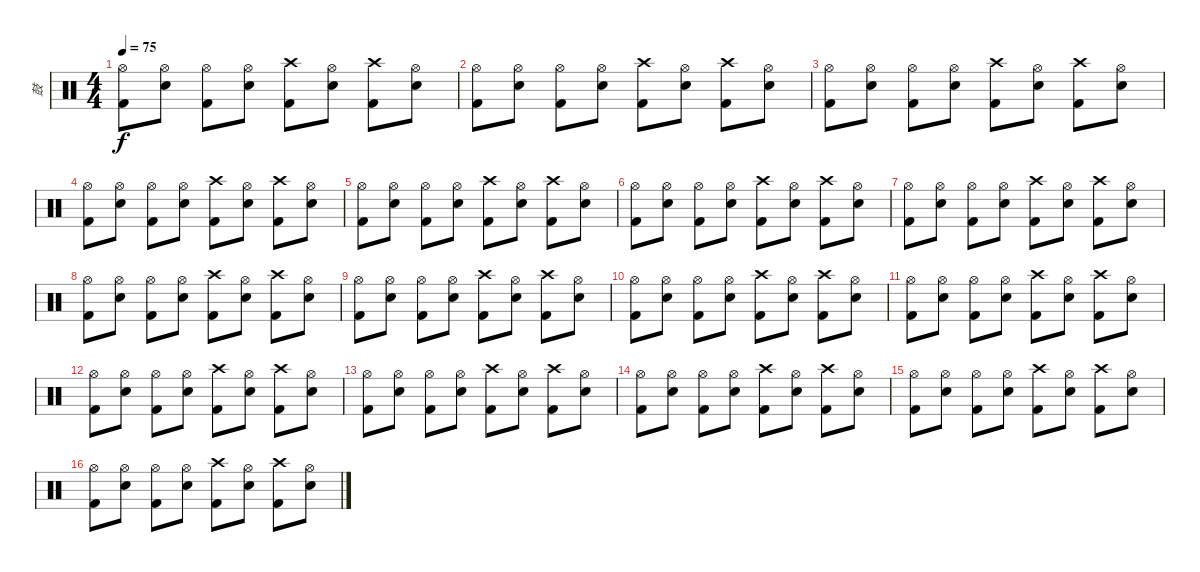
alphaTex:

\track ("鼓" "鼓") {instrument percussion}
\staff {score}
\articulation defaults
\ts (4 4)
\tempo 75
\clef neutral
\ks c
("Hi-Hat (open)" "Kick (hit) 2").8{dy f} ("Hi-Hat (open)" "Electric Snare (hit)").8 ("Hi-Hat (open)" "Kick (hit) 2").8 ("Hi-Hat (open)" "Electric Snare (hit)").8 ("Crash high (hit)" "Kick (hit) 2").8 ("Hi-Hat (open)" "Electric Snare (hit)").8 ("Crash high (hit)" "Kick (hit) 2").8 ("Hi-Hat (open)" "Electric Snare (hit)").8 |
("Hi-Hat (open)" "Kick (hit) 2").8 ("Hi-Hat (open)" "Electric Snare (hit)").8 ("Hi-Hat (open)" "Kick (hit) 2").8 ("Hi-Hat (open)" "Electric Snare (hit)").8 ("Crash high (hit)" "Kick (hit) 2").8 ("Hi-Hat (open)" "Electric Snare (hit)").8 ("Crash high (hit)" "Kick (hit) 2").8 ("Hi-Hat (open)" "Electric Snare (hit)").8 |
("Hi-Hat (open)" "Kick (hit) 2").8 ("Hi-Hat (open)" "Electric Snare (hit)").8 ("Hi-Hat (open)" "Kick (hit) 2").8 ("Hi-Hat (open)" "Electric Snare (hit)").8 ("Crash high (hit)" "Kick (hit) 2").8 ("Hi-Hat (open)" "Electric Snare (hit)").8 ("Crash high (hit)" "Kick (hit) 2").8 ("Hi-Hat (open)" "Electric Snare (hit)").8 |
("Hi-Hat (open)" "Kick (hit) 2").8 ("Hi-Hat (open)" "Electric Snare (hit)").8 ("Hi-Hat (open)" "Kick (hit) 2").8 ("Hi-Hat (open)" "Electric Snare (hit)").8 ("Crash high (hit)" "Kick (hit) 2").8 ("Hi-Hat (open)" "Electric Snare (hit)").8 ("Crash high (hit)" "Kick (hit) 2").8 ("Hi-Hat (open)" "Electric Snare (hit)").8 |
("Hi-Hat (open)" "Kick (hit) 2").8 ("Hi-Hat (open)" "Electric Snare (hit)").8 ("Hi-Hat (open)" "Kick (hit) 2").8 ("Hi-Hat (open)" "Electric Snare (hit)").8 ("Crash high (hit)" "Kick (hit) 2").8 ("Hi-Hat (open)" "Electric Snare (hit)").8 ("Crash high (hit)" "Kick (hit) 2").8 ("Hi-Hat (open)" "Electric Snare (hit)").8 |
("Hi-Hat (open)" "Kick (hit) 2").8 ("Hi-Hat (open)" "Electric Snare (hit)").8 ("Hi-Hat (open)" "Kick (hit) 2").8 ("Hi-Hat (open)" "Electric Snare (hit)").8 ("Crash high (hit)" "Kick (hit) 2").8 ("Hi-Hat (open)" "Electric Snare (hit)").8 ("Crash high (hit)" "Kick (hit) 2").8 ("Hi-Hat (open)" "Electric Snare (hit)").8 |
("Hi-Hat (open)" "Kick (hit) 2").8 ("Hi-Hat (open)" "Electric Snare (hit)").8 ("Hi-Hat (open)" "Kick (hit) 2").8 ("Hi-Hat (open)" "Electric Snare (hit)").8 ("Crash high (hit)" "Kick (hit) 2").8 ("Hi-Hat (open)" "Electric Snare (hit)").8 ("Crash high (hit)" "Kick (hit) 2").8 ("Hi-Hat (open)" "Electric Snare (hit)").8 |
("Hi-Hat (open)" "Kick (hit) 2").8 ("Hi-Hat (open)" "Electric Snare (hit)").8 ("Hi-Hat (open)" "Kick (hit) 2").8 ("Hi-Hat (open)" "Electric Snare (hit)").8 ("Crash high (hit)" "Kick (hit) 2").8 ("Hi-Hat (open)" "Electric Snare (hit)").8 ("Crash high (hit)" "Kick (hit) 2").8 ("Hi-Hat (open)" "Electric Snare (hit)").8 |
("Hi-Hat (open)" "Kick (hit) 2").8 ("Hi-Hat (open)" "Electric Snare (hit)").8 ("Hi-Hat (open)" "Kick (hit) 2").8 ("Hi-Hat (open)" "Electric Snare (hit)").8 ("Crash high (hit)" "Kick (hit) 2").8 ("Hi-Hat (open)" "Electric Snare (hit)").8 ("Crash high (hit)" "Kick (hit) 2").8 ("Hi-Hat (open)" "Electric Snare (hit)").8 |
("Hi-Hat (open)" "Kick (hit) 2").8 ("Hi-Hat (open)" "Electric Snare (hit)").8 ("Hi-Hat (open)" "Kick (hit) 2").8 ("Hi-Hat (open)" "Electric Snare (hit)").8 ("Crash high (hit)" "Kick (hit) 2").8 ("Hi-Hat (open)" "Electric Snare (hit)").8 ("Crash high (hit)" "Kick (hit) 2").8 ("Hi-Hat (open)" "Electric Snare (hit)").8 |
("Hi-Hat (open)" "Kick (hit) 2").8 ("Hi-Hat (open)" "Electric Snare (hit)").8 ("Hi-Hat (open)" "Kick (hit) 2").8 ("Hi-Hat (open)" "Electric Snare (hit)").8 ("Crash high (hit)" "Kick (hit) 2").8 ("Hi-Hat (open)" "Electric Snare (hit)").8 ("Crash high (hit)" "Kick (hit) 2").8 ("Hi-Hat (open)" "Electric Snare (hit)").8 |
("Hi-Hat (open)" "Kick (hit) 2").8 ("Hi-Hat (open)" "Electric Snare (hit)").8 ("Hi-Hat (open)" "Kick (hit) 2").8 ("Hi-Hat (open)" "Electric Snare (hit)").8 ("Crash high (hit)" "Kick (hit) 2").8 ("Hi-Hat (open)" "Electric Snare (hit)").8 ("Crash high (hit)" "Kick (hit) 2").8 ("Hi-Hat (open)" "Electric Snare (hit)").8 |
("Hi-Hat (open)" "Kick (hit) 2").8 ("Hi-Hat (open)" "Electric Snare (hit)").8 ("Hi-Hat (open)" "Kick (hit) 2").8 ("Hi-Hat (open)" "Electric Snare (hit)").8 ("Crash high (hit)" "Kick (hit) 2").8 ("Hi-Hat (open)" "Electric Snare (hit)").8 ("Crash high (hit)" "Kick (hit) 2").8 ("Hi-Hat (open)" "Electric Snare (hit)").8 |
("Hi-Hat (open)" "Kick (hit) 2").8 ("Hi-Hat (open)" "Electric Snare (hit)").8 ("Hi-Hat (open)" "Kick (hit) 2").8 ("Hi-Hat (open)" "Electric Snare (hit)").8 ("Crash high (hit)" "Kick (hit) 2").8 ("Hi-Hat (open)" "Electric Snare (hit)").8 ("Crash high (hit)" "Kick (hit) 2").8 ("Hi-Hat (open)" "Electric Snare (hit)").8 |
("Hi-Hat (open)" "Kick (hit) 2").8 ("Hi-Hat (open)" "Electric Snare (hit)").8 ("Hi-Hat (open)" "Kick (hit) 2").8 ("Hi-Hat (open)" "Electric Snare (hit)").8 ("Crash high (hit)" "Kick (hit) 2").8 ("Hi-Hat (open)" "Electric Snare (hit)").8 ("Crash high (hit)" "Kick (hit) 2").8 ("Hi-Hat (open)" "Electric Snare (hit)").8 |
("Hi-Hat (open)" "Kick (hit) 2").8 ("Hi-Hat (open)" "Electric Snare (hit)").8 ("Hi-Hat (open)" "Kick (hit) 2").8 ("Hi-Hat (open)" "Electric Snare (hit)").8 ("Crash high (hit)" "Kick (hit) 2").8 ("Hi-Hat (open)" "Electric Snare (hit)").8 ("Crash high (hit)" "Kick (hit) 2").8 ("Hi-Hat (open)" "Electric Snare (hit)").8
